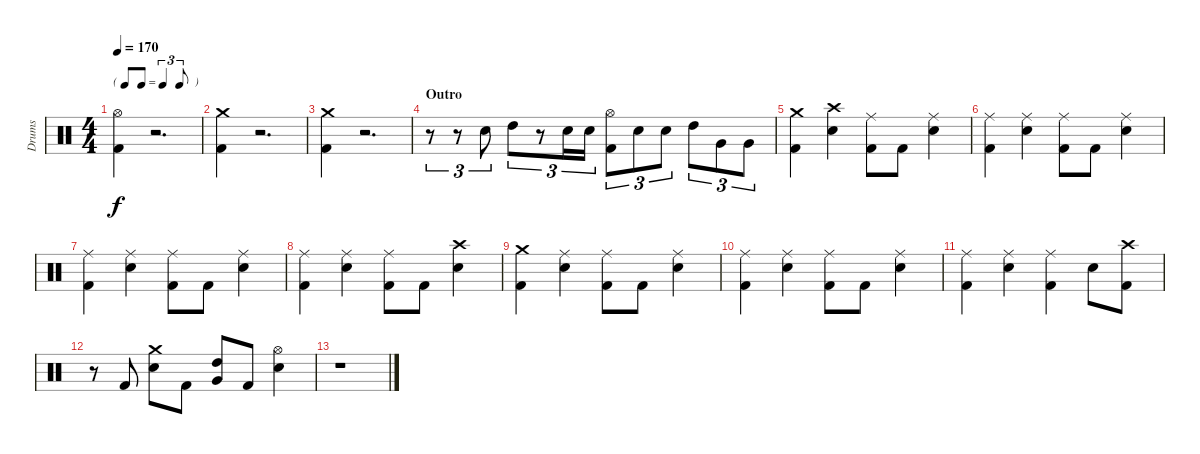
\track ("Drums" "Drums") {instrument percussion}
\staff {score}
\articulation defaults
\ts (4 4)
\tf triplet8th
\tempo 170
\clef neutral
\ks c
("Hi-Hat (open)" "Kick (hit) 2").4{dy f} r.2{d} |
("Crash medium (hit)" "Kick (hit) 2").4 r.2{d} |
("Crash medium (hit)" "Kick (hit) 2").4 r.2{d} |
\section ("" "Outro")
r.8{tu (3 2)} r.8{tu (3 2)} "Snare (hit) 2".8{tu (3 2)} "High Tom (hit)".8{tu (3 2)} r.8{tu (3 2)} "Snare (hit) 2".16{tu (3 2)} "Snare (hit) 2".16{tu (3 2)} ("Hi-Hat (open)" "Kick (hit) 2").8{tu (3 2)} "Snare (hit) 2".8{tu (3 2)} "Snare (hit) 2".8{tu (3 2)} "High Tom (hit)".8{tu (3 2)} "Very Low Tom (hit)".8{tu (3 2)} "Very Low Tom (hit)".8{tu (3 2)} |
("Crash medium (hit)" "Kick (hit) 2").4 ("Crash high (hit)" "Snare (hit) 2").4 ("Ride (middle)" "Kick (hit) 2").8 "Kick (hit) 2".8 ("Ride (middle)" "Snare (hit) 2").4 |
("Ride (middle)" "Kick (hit) 2").4 ("Ride (middle)" "Snare (hit) 2").4 ("Ride (middle)" "Kick (hit) 2").8 "Kick (hit) 2".8 ("Ride (middle)" "Snare (hit) 2").4 |
("Ride (middle)" "Kick (hit) 2").4 ("Ride (middle)" "Snare (hit) 2").4 ("Ride (middle)" "Kick (hit) 2").8 "Kick (hit) 2".8 ("Ride (middle)" "Snare (hit) 2").4 |
("Ride (middle)" "Kick (hit) 2").4 ("Ride (middle)" "Snare (hit) 2").4 ("Ride (middle)" "Kick (hit) 2").8 "Kick (hit) 2".8 ("Crash high (hit)" "Snare (hit) 2").4 |
("Crash medium (hit)" "Kick (hit) 2").4 ("Ride (middle)" "Snare (hit) 2").4 ("Ride (middle)" "Kick (hit) 2").8 "Kick (hit) 2".8 ("Ride (middle)" "Snare (hit) 2").4 |
("Ride (middle)" "Kick (hit) 2").4 ("Ride (middle)" "Snare (hit) 2").4 ("Ride (middle)" "Kick (hit) 2").8 "Kick (hit) 2".8 ("Ride (middle)" "Snare (hit) 2").4 |
("Ride (middle)" "Kick (hit) 2").4 ("Ride (middle)" "Snare (hit) 2").4 ("Ride (middle)" "Kick (hit) 2").4 "Snare (hit) 2".8 ("Crash high (hit)" "Kick (hit) 2").8 |
r.8 "Kick (hit) 2".8 ("Crash medium (hit)" "Snare (hit) 2").8 "Kick (hit) 2".8 ("High Tom (hit)" "Very Low Tom (hit)").8 "Kick (hit) 2".8 ("Hi-Hat (open)" "Snare (hit) 2").4 |
r.1
